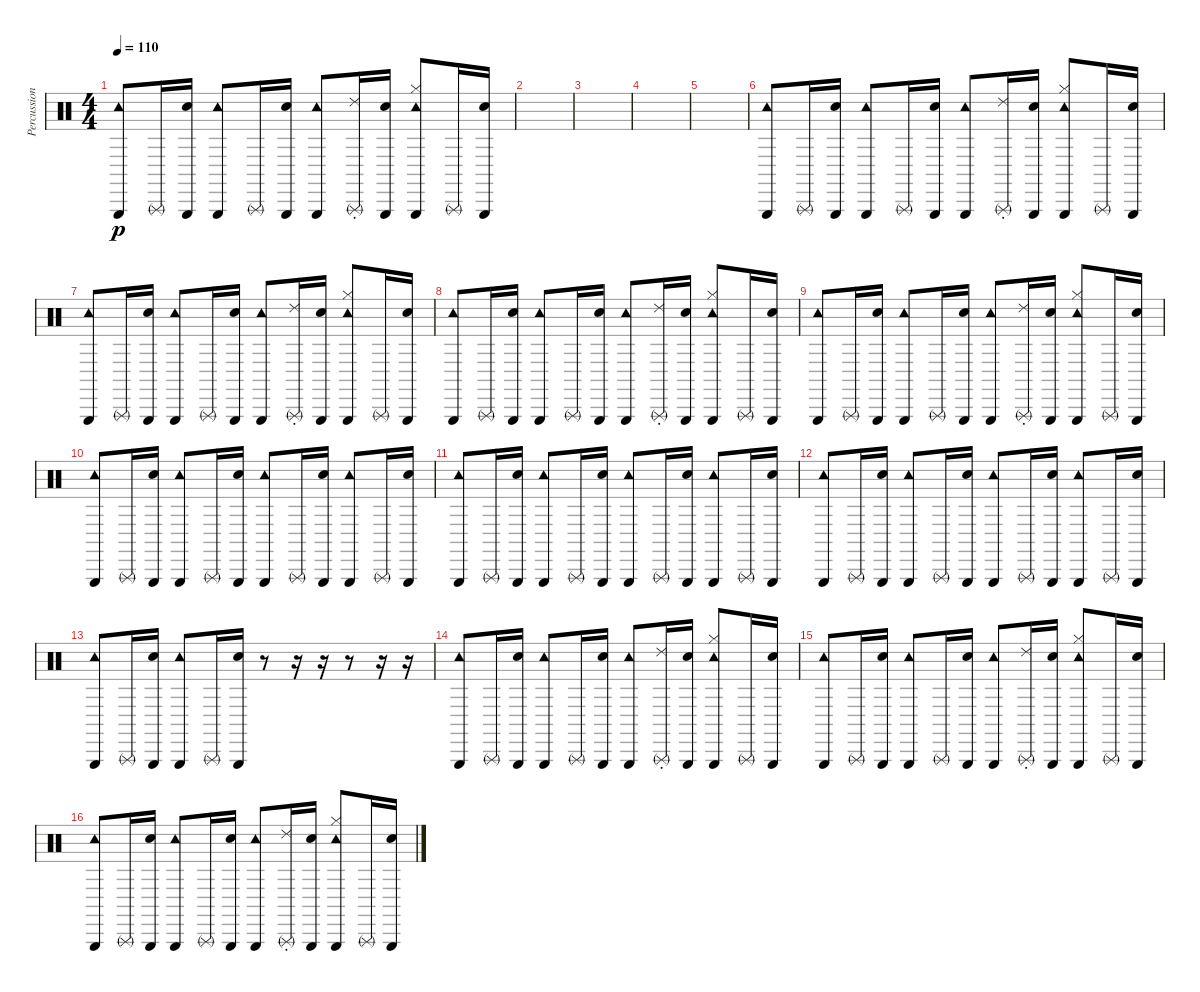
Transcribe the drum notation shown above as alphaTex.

\track ("Percussion" "Percussion") {instrument percussion}
\staff {score}
\articulation defaults
\ts (4 4)
\tempo 110
\clef neutral
\ks c
("Tambourine (hit)" "Triangle (hit)").8{dy p} "Triangle (rnute)".16 ("Metronome (bell)" "Triangle (hit)").16 ("Tambourine (hit)" "Triangle (hit)").8 "Triangle (rnute)".16 ("Metronome (bell)" "Triangle (hit)").16 ("Tambourine (hit)" "Triangle (hit)").8 ("Triangle (rnute)" "Ride (choke) 2").16 ("Metronome (bell)" "Triangle (hit)").16 ("Tambourine (hit)" "Triangle (hit)" "Hi-Hat (closed)").8 "Triangle (rnute)".16 ("Metronome (bell)" "Triangle (hit)").16 |
|
|
|
|
("Tambourine (hit)" "Triangle (hit)").8 "Triangle (rnute)".16 ("Metronome (bell)" "Triangle (hit)").16 ("Tambourine (hit)" "Triangle (hit)").8 "Triangle (rnute)".16 ("Metronome (bell)" "Triangle (hit)").16 ("Tambourine (hit)" "Triangle (hit)").8 ("Triangle (rnute)" "Ride (choke) 2").16 ("Metronome (bell)" "Triangle (hit)").16 ("Tambourine (hit)" "Triangle (hit)" "Hi-Hat (closed)").8 "Triangle (rnute)".16 ("Metronome (bell)" "Triangle (hit)").16 |
("Tambourine (hit)" "Triangle (hit)").8 "Triangle (rnute)".16 ("Metronome (bell)" "Triangle (hit)").16 ("Tambourine (hit)" "Triangle (hit)").8 "Triangle (rnute)".16 ("Metronome (bell)" "Triangle (hit)").16 ("Tambourine (hit)" "Triangle (hit)").8 ("Triangle (rnute)" "Ride (choke) 2").16 ("Metronome (bell)" "Triangle (hit)").16 ("Tambourine (hit)" "Triangle (hit)" "Hi-Hat (closed)").8 "Triangle (rnute)".16 ("Metronome (bell)" "Triangle (hit)").16 |
("Tambourine (hit)" "Triangle (hit)").8 "Triangle (rnute)".16 ("Metronome (bell)" "Triangle (hit)").16 ("Tambourine (hit)" "Triangle (hit)").8 "Triangle (rnute)".16 ("Metronome (bell)" "Triangle (hit)").16 ("Tambourine (hit)" "Triangle (hit)").8 ("Triangle (rnute)" "Ride (choke) 2").16 ("Metronome (bell)" "Triangle (hit)").16 ("Tambourine (hit)" "Triangle (hit)" "Hi-Hat (closed)").8 "Triangle (rnute)".16 ("Metronome (bell)" "Triangle (hit)").16 |
("Tambourine (hit)" "Triangle (hit)").8 "Triangle (rnute)".16 ("Metronome (bell)" "Triangle (hit)").16 ("Tambourine (hit)" "Triangle (hit)").8 "Triangle (rnute)".16 ("Metronome (bell)" "Triangle (hit)").16 ("Tambourine (hit)" "Triangle (hit)").8 ("Triangle (rnute)" "Ride (choke) 2").16 ("Metronome (bell)" "Triangle (hit)").16 ("Tambourine (hit)" "Triangle (hit)" "Hi-Hat (closed)").8 "Triangle (rnute)".16 ("Metronome (bell)" "Triangle (hit)").16 |
("Tambourine (hit)" "Triangle (hit)").8 "Triangle (rnute)".16 ("Metronome (bell)" "Triangle (hit)").16 ("Tambourine (hit)" "Triangle (hit)").8 "Triangle (rnute)".16 ("Metronome (bell)" "Triangle (hit)").16 ("Tambourine (hit)" "Triangle (hit)").8 "Triangle (rnute)".16 ("Metronome (bell)" "Triangle (hit)").16 ("Tambourine (hit)" "Triangle (hit)").8 "Triangle (rnute)".16 ("Metronome (bell)" "Triangle (hit)").16 |
("Tambourine (hit)" "Triangle (hit)").8 "Triangle (rnute)".16 ("Metronome (bell)" "Triangle (hit)").16 ("Tambourine (hit)" "Triangle (hit)").8 "Triangle (rnute)".16 ("Metronome (bell)" "Triangle (hit)").16 ("Tambourine (hit)" "Triangle (hit)").8 "Triangle (rnute)".16 ("Metronome (bell)" "Triangle (hit)").16 ("Tambourine (hit)" "Triangle (hit)").8 "Triangle (rnute)".16 ("Metronome (bell)" "Triangle (hit)").16 |
("Tambourine (hit)" "Triangle (hit)").8 "Triangle (rnute)".16 ("Metronome (bell)" "Triangle (hit)").16 ("Tambourine (hit)" "Triangle (hit)").8 "Triangle (rnute)".16 ("Metronome (bell)" "Triangle (hit)").16 ("Tambourine (hit)" "Triangle (hit)").8 "Triangle (rnute)".16 ("Metronome (bell)" "Triangle (hit)").16 ("Tambourine (hit)" "Triangle (hit)").8 "Triangle (rnute)".16 ("Metronome (bell)" "Triangle (hit)").16 |
("Tambourine (hit)" "Triangle (hit)").8 "Triangle (rnute)".16 ("Metronome (bell)" "Triangle (hit)").16 ("Tambourine (hit)" "Triangle (hit)").8 "Triangle (rnute)".16 ("Metronome (bell)" "Triangle (hit)").16 r.8 r.16 r.16 r.8 r.16 r.16 |
("Tambourine (hit)" "Triangle (hit)").8 "Triangle (rnute)".16 ("Metronome (bell)" "Triangle (hit)").16 ("Tambourine (hit)" "Triangle (hit)").8 "Triangle (rnute)".16 ("Metronome (bell)" "Triangle (hit)").16 ("Tambourine (hit)" "Triangle (hit)").8 ("Triangle (rnute)" "Ride (choke) 2").16 ("Metronome (bell)" "Triangle (hit)").16 ("Tambourine (hit)" "Triangle (hit)" "Hi-Hat (closed)").8 "Triangle (rnute)".16 ("Metronome (bell)" "Triangle (hit)").16 |
("Tambourine (hit)" "Triangle (hit)").8 "Triangle (rnute)".16 ("Metronome (bell)" "Triangle (hit)").16 ("Tambourine (hit)" "Triangle (hit)").8 "Triangle (rnute)".16 ("Metronome (bell)" "Triangle (hit)").16 ("Tambourine (hit)" "Triangle (hit)").8 ("Triangle (rnute)" "Ride (choke) 2").16 ("Metronome (bell)" "Triangle (hit)").16 ("Tambourine (hit)" "Triangle (hit)" "Hi-Hat (closed)").8 "Triangle (rnute)".16 ("Metronome (bell)" "Triangle (hit)").16 |
("Tambourine (hit)" "Triangle (hit)").8 "Triangle (rnute)".16 ("Metronome (bell)" "Triangle (hit)").16 ("Tambourine (hit)" "Triangle (hit)").8 "Triangle (rnute)".16 ("Metronome (bell)" "Triangle (hit)").16 ("Tambourine (hit)" "Triangle (hit)").8 ("Triangle (rnute)" "Ride (choke) 2").16 ("Metronome (bell)" "Triangle (hit)").16 ("Tambourine (hit)" "Triangle (hit)" "Hi-Hat (closed)").8 "Triangle (rnute)".16 ("Metronome (bell)" "Triangle (hit)").16
